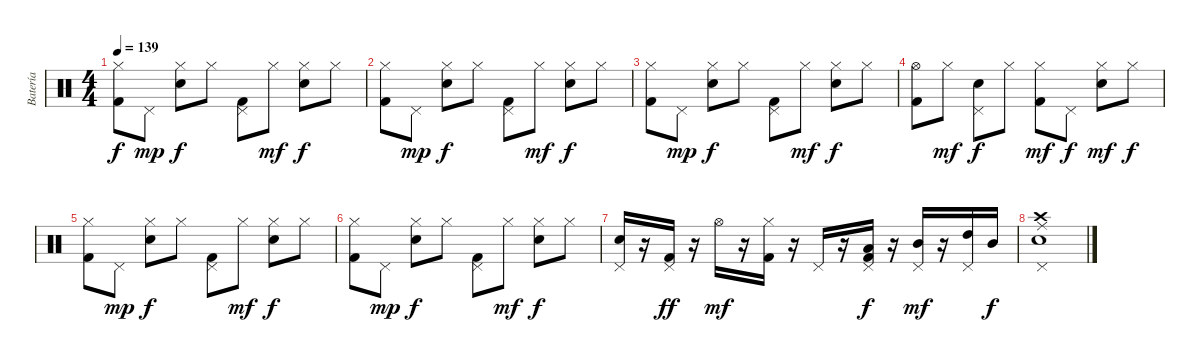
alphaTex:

\track ("Batería" "Batería") {instrument percussion}
\staff {score}
\articulation defaults
\ts (4 4)
\tempo 139
\clef neutral
\ks c
("Hi-Hat (closed)" "Kick (hit) 2").8{dy f} "Pedal Hi-Hat (hit)".8{dy mp} ("Hi-Hat (closed)" "Snare (hit) 2").8{dy f} "Hi-Hat (closed)".8 ("Pedal Hi-Hat (hit)" "Kick (hit) 2").8 "Hi-Hat (closed)".8{dy mf} ("Hi-Hat (closed)" "Snare (hit) 2").8{dy f} "Hi-Hat (closed)".8 |
("Hi-Hat (closed)" "Kick (hit) 2").8 "Pedal Hi-Hat (hit)".8{dy mp} ("Hi-Hat (closed)" "Snare (hit) 2").8{dy f} "Hi-Hat (closed)".8 ("Pedal Hi-Hat (hit)" "Kick (hit) 2").8 "Hi-Hat (closed)".8{dy mf} ("Hi-Hat (closed)" "Snare (hit) 2").8{dy f} "Hi-Hat (closed)".8 |
("Hi-Hat (closed)" "Kick (hit) 2").8 "Pedal Hi-Hat (hit)".8{dy mp} ("Hi-Hat (closed)" "Snare (hit) 2").8{dy f} "Hi-Hat (closed)".8 ("Pedal Hi-Hat (hit)" "Kick (hit) 2").8 "Hi-Hat (closed)".8{dy mf} ("Hi-Hat (closed)" "Snare (hit) 2").8{dy f} "Hi-Hat (closed)".8 |
("Hi-Hat (open)" "Kick (hit) 2").8 "Hi-Hat (closed)".8{dy mf} ("Pedal Hi-Hat (hit)" "Snare (hit) 2").8{dy f} "Hi-Hat (closed)".8 ("Hi-Hat (closed)" "Kick (hit) 2").8{dy mf} "Pedal Hi-Hat (hit)".8{dy f} ("Hi-Hat (closed)" "Snare (hit) 2").8{dy mf} "Hi-Hat (closed)".8{dy f} |
("Hi-Hat (closed)" "Kick (hit) 2").8 "Pedal Hi-Hat (hit)".8{dy mp} ("Hi-Hat (closed)" "Snare (hit) 2").8{dy f} "Hi-Hat (closed)".8 ("Pedal Hi-Hat (hit)" "Kick (hit) 2").8 "Hi-Hat (closed)".8{dy mf} ("Hi-Hat (closed)" "Snare (hit) 2").8{dy f} "Hi-Hat (closed)".8 |
("Hi-Hat (closed)" "Kick (hit) 2").8 "Pedal Hi-Hat (hit)".8{dy mp} ("Hi-Hat (closed)" "Snare (hit) 2").8{dy f} "Hi-Hat (closed)".8 ("Pedal Hi-Hat (hit)" "Kick (hit) 2").8 "Hi-Hat (closed)".8{dy mf} ("Hi-Hat (closed)" "Snare (hit) 2").8{dy f} "Hi-Hat (closed)".8 |
("Pedal Hi-Hat (hit)" "Snare (hit) 2").16 r.16 ("Pedal Hi-Hat (hit)" "Kick (hit) 2").16{dy ff} r.16 "Hi-Hat (open)".16{dy mf} r.16 ("Hi-Hat (closed)" "Kick (hit) 2").16 r.16 "Pedal Hi-Hat (hit)".16 r.16 ("Low Tom (hit)" "Pedal Hi-Hat (hit)" "Kick (hit) 2").16{dy f} r.16 ("Mid Tom (hit)" "Pedal Hi-Hat (hit)").16{dy mf} r.16 ("High Tom (hit)" "Pedal Hi-Hat (hit)").16 "Mid Tom (hit)".16{dy f} |
("Crash high (hit)" "Ride (middle)" "Pedal Hi-Hat (hit)" "Snare (hit) 2").1
